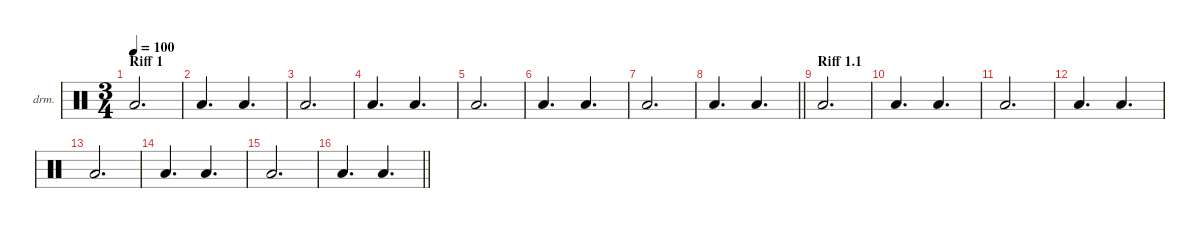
\defaultSystemsLayout 4
\hideDynamics
\bracketExtendMode nobrackets
\firstSystemTrackNameOrientation horizontal
\otherSystemsTrackNameOrientation horizontal
\track ("Dondervuyscht" "drm.") {instrument percussion}
\staff {score}
\articulation defaults
\ts (3 4)
\section ("" "Riff 1")
\tempo 100
\clef neutral
\ks c "Low Floor Tom (hit)".2{d dy f}
|
"Low Floor Tom (hit)".4{d} "Low Floor Tom (hit)".4{d} |
"Low Floor Tom (hit)".2{d} |
"Low Floor Tom (hit)".4{d} "Low Floor Tom (hit)".4{d} |
"Low Floor Tom (hit)".2{d} |
"Low Floor Tom (hit)".4{d} "Low Floor Tom (hit)".4{d} |
"Low Floor Tom (hit)".2{d} |
\barLineRight lightlight "Low Floor Tom (hit)".4{d} "Low Floor Tom (hit)".4{d}
|
\section ("" "Riff 1.1")
"Low Floor Tom (hit)".2{d} |
"Low Floor Tom (hit)".4{d} "Low Floor Tom (hit)".4{d} |
"Low Floor Tom (hit)".2{d} |
"Low Floor Tom (hit)".4{d} "Low Floor Tom (hit)".4{d} |
"Low Floor Tom (hit)".2{d} |
"Low Floor Tom (hit)".4{d} "Low Floor Tom (hit)".4{d} |
"Low Floor Tom (hit)".2{d} |
\barLineRight lightlight "Low Floor Tom (hit)".4{d} "Low Floor Tom (hit)".4{d}
